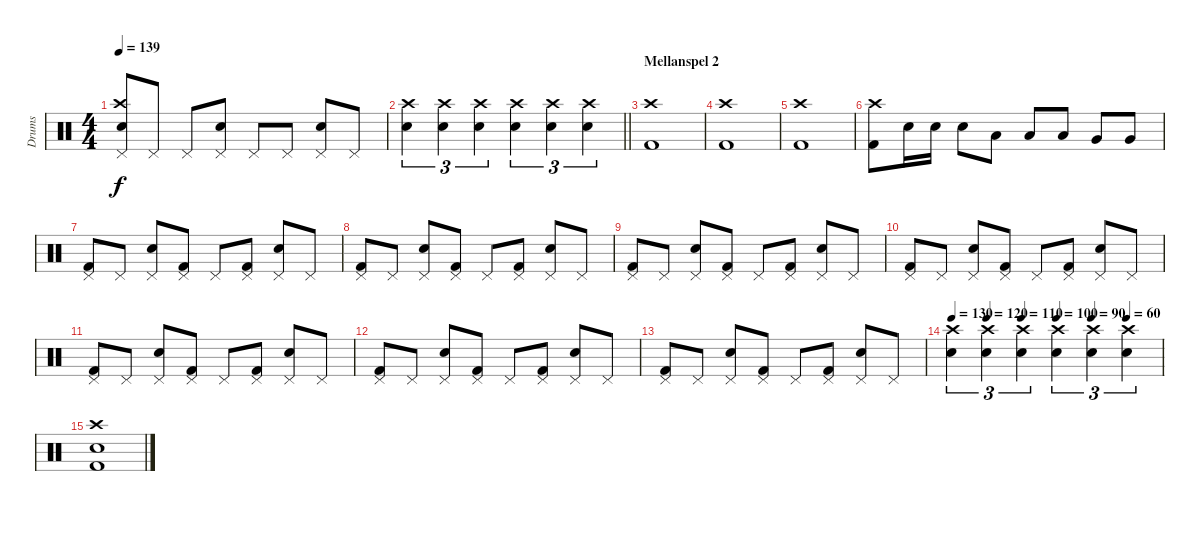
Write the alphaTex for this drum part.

\track ("Drums" "Drums") {instrument percussion}
\staff {score}
\articulation defaults
\ts (4 4)
\tempo 139
\clef neutral
\ks c
("Pedal Hi-Hat (hit)" "Crash high (hit)" "Snare (hit) 2").8{dy f} "Pedal Hi-Hat (hit)".8 "Pedal Hi-Hat (hit)".8 ("Pedal Hi-Hat (hit)" "Snare (hit) 2").8 "Pedal Hi-Hat (hit)".8 "Pedal Hi-Hat (hit)".8 ("Pedal Hi-Hat (hit)" "Snare (hit) 2").8 "Pedal Hi-Hat (hit)".8 |
\barLineRight lightlight
("Crash high (hit)" "Snare (hit) 2").4{tu (3 2)} ("Crash high (hit)" "Snare (hit) 2").4{tu (3 2)} ("Crash high (hit)" "Snare (hit) 2").4{tu (3 2)} ("Crash high (hit)" "Snare (hit) 2").4{tu (3 2)} ("Crash high (hit)" "Snare (hit) 2").4{tu (3 2)} ("Crash high (hit)" "Snare (hit) 2").4{tu (3 2)} |
\section ("" "Mellanspel 2")
("Crash high (hit)" "Kick (hit) 2").1 |
("Crash high (hit)" "Kick (hit) 2").1 |
("Crash high (hit)" "Kick (hit) 2").1 |
("Crash high (hit)" "Kick (hit) 2").8 "Snare (hit) 2".16 "Snare (hit) 2".16 "Snare (hit) 2".8 "Low Tom (hit)".8 "Low Tom (hit)".8 "Low Tom (hit)".8 "Very Low Tom (hit)".8 "Very Low Tom (hit)".8 |
("Pedal Hi-Hat (hit)" "Kick (hit) 2").8 "Pedal Hi-Hat (hit)".8 ("Pedal Hi-Hat (hit)" "Snare (hit) 2").8 ("Pedal Hi-Hat (hit)" "Kick (hit) 2").8 "Pedal Hi-Hat (hit)".8 ("Pedal Hi-Hat (hit)" "Kick (hit) 2").8 ("Pedal Hi-Hat (hit)" "Snare (hit) 2").8 "Pedal Hi-Hat (hit)".8 |
("Pedal Hi-Hat (hit)" "Kick (hit) 2").8 "Pedal Hi-Hat (hit)".8 ("Pedal Hi-Hat (hit)" "Snare (hit) 2").8 ("Pedal Hi-Hat (hit)" "Kick (hit) 2").8 "Pedal Hi-Hat (hit)".8 ("Pedal Hi-Hat (hit)" "Kick (hit) 2").8 ("Pedal Hi-Hat (hit)" "Snare (hit) 2").8 "Pedal Hi-Hat (hit)".8 |
("Pedal Hi-Hat (hit)" "Kick (hit) 2").8 "Pedal Hi-Hat (hit)".8 ("Pedal Hi-Hat (hit)" "Snare (hit) 2").8 ("Pedal Hi-Hat (hit)" "Kick (hit) 2").8 "Pedal Hi-Hat (hit)".8 ("Pedal Hi-Hat (hit)" "Kick (hit) 2").8 ("Pedal Hi-Hat (hit)" "Snare (hit) 2").8 "Pedal Hi-Hat (hit)".8 |
("Pedal Hi-Hat (hit)" "Kick (hit) 2").8 "Pedal Hi-Hat (hit)".8 ("Pedal Hi-Hat (hit)" "Snare (hit) 2").8 ("Pedal Hi-Hat (hit)" "Kick (hit) 2").8 "Pedal Hi-Hat (hit)".8 ("Pedal Hi-Hat (hit)" "Kick (hit) 2").8 ("Pedal Hi-Hat (hit)" "Snare (hit) 2").8 "Pedal Hi-Hat (hit)".8 |
("Pedal Hi-Hat (hit)" "Kick (hit) 2").8 "Pedal Hi-Hat (hit)".8 ("Pedal Hi-Hat (hit)" "Snare (hit) 2").8 ("Pedal Hi-Hat (hit)" "Kick (hit) 2").8 "Pedal Hi-Hat (hit)".8 ("Pedal Hi-Hat (hit)" "Kick (hit) 2").8 ("Pedal Hi-Hat (hit)" "Snare (hit) 2").8 "Pedal Hi-Hat (hit)".8 |
("Pedal Hi-Hat (hit)" "Kick (hit) 2").8 "Pedal Hi-Hat (hit)".8 ("Pedal Hi-Hat (hit)" "Snare (hit) 2").8 ("Pedal Hi-Hat (hit)" "Kick (hit) 2").8 "Pedal Hi-Hat (hit)".8 ("Pedal Hi-Hat (hit)" "Kick (hit) 2").8 ("Pedal Hi-Hat (hit)" "Snare (hit) 2").8 "Pedal Hi-Hat (hit)".8 |
("Pedal Hi-Hat (hit)" "Kick (hit) 2").8 "Pedal Hi-Hat (hit)".8 ("Pedal Hi-Hat (hit)" "Snare (hit) 2").8 ("Pedal Hi-Hat (hit)" "Kick (hit) 2").8 "Pedal Hi-Hat (hit)".8 ("Pedal Hi-Hat (hit)" "Kick (hit) 2").8 ("Pedal Hi-Hat (hit)" "Snare (hit) 2").8 "Pedal Hi-Hat (hit)".8 |
\tempo 130
\tempo (120 0.16666666666666666)
\tempo (110 0.3333333333333333)
\tempo (100 0.5)
\tempo (90 0.6666666666666666)
\tempo (60 0.8333333333333334)
("Crash high (hit)" "Snare (hit) 2").4{tu (3 2)} ("Crash high (hit)" "Snare (hit) 2").4{tu (3 2)} ("Crash high (hit)" "Snare (hit) 2").4{tu (3 2)} ("Crash high (hit)" "Snare (hit) 2").4{tu (3 2)} ("Crash high (hit)" "Snare (hit) 2").4{tu (3 2)} ("Crash high (hit)" "Snare (hit) 2").4{tu (3 2)} |
("Crash high (hit)" "Snare (hit) 2" "Kick (hit) 2").1
